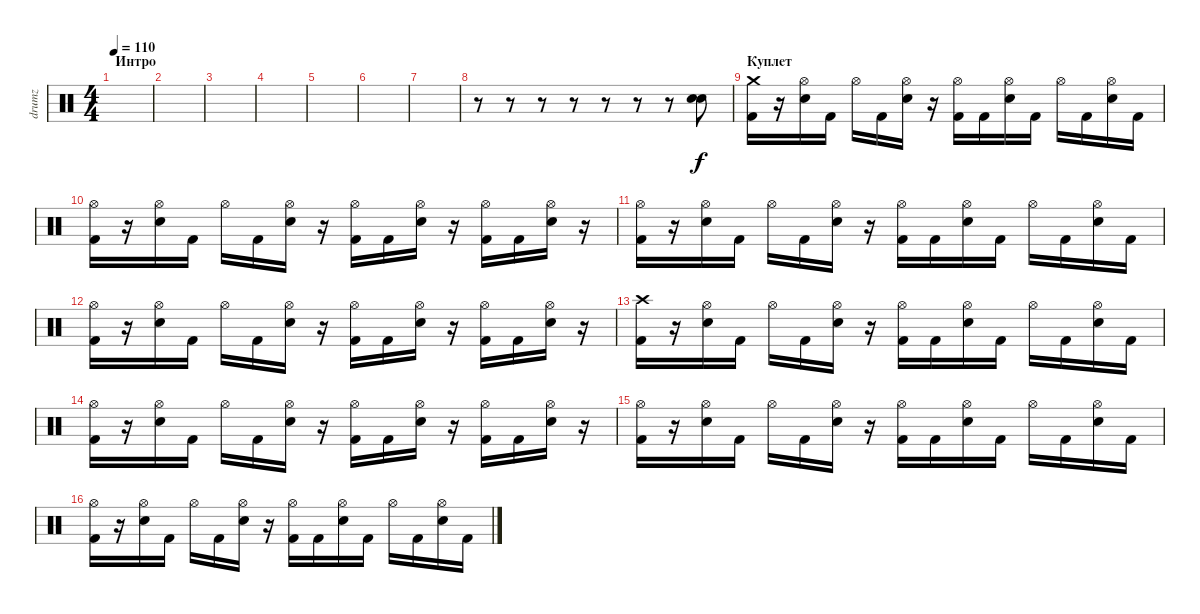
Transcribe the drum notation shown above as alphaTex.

\track ("drumz" "drumz") {instrument percussion}
\staff {score}
\articulation defaults
\ts (4 4)
\section ("" "Интро")
\tempo 110
\clef neutral
\ks c
|
|
|
|
|
|
|
r.8 r.8 r.8 r.8 r.8 r.8 r.8 ("Electric Snare (hit)" "Electric Snare (hit)").8 |
\section ("" "Куплет")
("Crash medium (hit)" "Kick (hit) 2").16 r.16 ("Hi-Hat (open)" "Electric Snare (hit)").16 "Kick (hit) 2".16 "Hi-Hat (open)".16 "Kick (hit) 2".16 ("Hi-Hat (open)" "Electric Snare (hit)").16 r.16 ("Hi-Hat (open)" "Kick (hit) 2").16 "Kick (hit) 2".16 ("Hi-Hat (open)" "Electric Snare (hit)").16 "Kick (hit) 2".16 "Hi-Hat (open)".16 "Kick (hit) 2".16 ("Hi-Hat (open)" "Electric Snare (hit)").16 "Kick (hit) 2".16 |
("Hi-Hat (open)" "Kick (hit) 2").16 r.16 ("Hi-Hat (open)" "Electric Snare (hit)").16 "Kick (hit) 2".16 "Hi-Hat (open)".16 "Kick (hit) 2".16 ("Hi-Hat (open)" "Electric Snare (hit)").16 r.16 ("Hi-Hat (open)" "Kick (hit) 2").16 "Kick (hit) 2".16 ("Hi-Hat (open)" "Electric Snare (hit)").16 r.16 ("Hi-Hat (open)" "Kick (hit) 2").16 "Kick (hit) 2".16 ("Hi-Hat (open)" "Electric Snare (hit)").16 r.16 |
("Hi-Hat (open)" "Kick (hit) 2").16 r.16 ("Hi-Hat (open)" "Electric Snare (hit)").16 "Kick (hit) 2".16 "Hi-Hat (open)".16 "Kick (hit) 2".16 ("Hi-Hat (open)" "Electric Snare (hit)").16 r.16 ("Hi-Hat (open)" "Kick (hit) 2").16 "Kick (hit) 2".16 ("Hi-Hat (open)" "Electric Snare (hit)").16 "Kick (hit) 2".16 "Hi-Hat (open)".16 "Kick (hit) 2".16 ("Hi-Hat (open)" "Electric Snare (hit)").16 "Kick (hit) 2".16 |
("Hi-Hat (open)" "Kick (hit) 2").16 r.16 ("Hi-Hat (open)" "Electric Snare (hit)").16 "Kick (hit) 2".16 "Hi-Hat (open)".16 "Kick (hit) 2".16 ("Hi-Hat (open)" "Electric Snare (hit)").16 r.16 ("Hi-Hat (open)" "Kick (hit) 2").16 "Kick (hit) 2".16 ("Hi-Hat (open)" "Electric Snare (hit)").16 r.16 ("Hi-Hat (open)" "Kick (hit) 2").16 "Kick (hit) 2".16 ("Hi-Hat (open)" "Electric Snare (hit)").16 r.16 |
("Crash high (hit)" "Kick (hit) 2").16 r.16 ("Hi-Hat (open)" "Electric Snare (hit)").16 "Kick (hit) 2".16 "Hi-Hat (open)".16 "Kick (hit) 2".16 ("Hi-Hat (open)" "Electric Snare (hit)").16 r.16 ("Hi-Hat (open)" "Kick (hit) 2").16 "Kick (hit) 2".16 ("Hi-Hat (open)" "Electric Snare (hit)").16 "Kick (hit) 2".16 "Hi-Hat (open)".16 "Kick (hit) 2".16 ("Hi-Hat (open)" "Electric Snare (hit)").16 "Kick (hit) 2".16 |
("Hi-Hat (open)" "Kick (hit) 2").16 r.16 ("Hi-Hat (open)" "Electric Snare (hit)").16 "Kick (hit) 2".16 "Hi-Hat (open)".16 "Kick (hit) 2".16 ("Hi-Hat (open)" "Electric Snare (hit)").16 r.16 ("Hi-Hat (open)" "Kick (hit) 2").16 "Kick (hit) 2".16 ("Hi-Hat (open)" "Electric Snare (hit)").16 r.16 ("Hi-Hat (open)" "Kick (hit) 2").16 "Kick (hit) 2".16 ("Hi-Hat (open)" "Electric Snare (hit)").16 r.16 |
("Hi-Hat (open)" "Kick (hit) 2").16 r.16 ("Hi-Hat (open)" "Electric Snare (hit)").16 "Kick (hit) 2".16 "Hi-Hat (open)".16 "Kick (hit) 2".16 ("Hi-Hat (open)" "Electric Snare (hit)").16 r.16 ("Hi-Hat (open)" "Kick (hit) 2").16 "Kick (hit) 2".16 ("Hi-Hat (open)" "Electric Snare (hit)").16 "Kick (hit) 2".16 "Hi-Hat (open)".16 "Kick (hit) 2".16 ("Hi-Hat (open)" "Electric Snare (hit)").16 "Kick (hit) 2".16 |
("Hi-Hat (open)" "Kick (hit) 2").16 r.16 ("Hi-Hat (open)" "Electric Snare (hit)").16 "Kick (hit) 2".16 "Hi-Hat (open)".16 "Kick (hit) 2".16 ("Hi-Hat (open)" "Electric Snare (hit)").16 r.16 ("Hi-Hat (open)" "Kick (hit) 2").16 "Kick (hit) 2".16 ("Hi-Hat (open)" "Electric Snare (hit)").16 "Kick (hit) 2".16 "Hi-Hat (open)".16 "Kick (hit) 2".16 ("Hi-Hat (open)" "Electric Snare (hit)").16 "Kick (hit) 2".16
